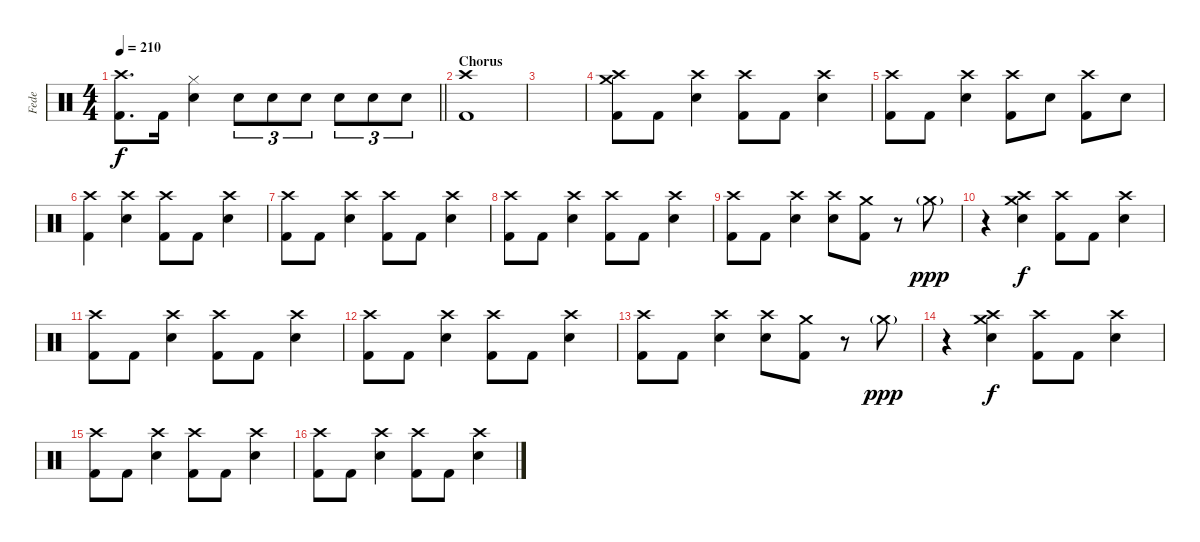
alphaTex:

\track ("Fede" "Fede") {instrument percussion}
\staff {score}
\articulation defaults
\ts (4 4)
\tempo 210
\clef neutral
\barLineRight lightlight
\ks c
("Crash high (hit)" "Kick (hit) 2").8{d dy f} "Kick (hit) 2".16 ("Hi-Hat (closed)" "Snare (hit) 2").4 "Snare (hit) 2".8{tu (3 2)} "Snare (hit) 2".8{tu (3 2)} "Snare (hit) 2".8{tu (3 2)} "Snare (hit) 2".8{tu (3 2)} "Snare (hit) 2".8{tu (3 2)} "Snare (hit) 2".8{tu (3 2)} |
\section ("" "Chorus")
("Crash high (hit)" "Kick (hit) 2").1 |
|
("Crash high (hit)" "Crash medium (hit)" "Kick (hit) 2").8 "Kick (hit) 2".8 ("Crash high (hit)" "Snare (hit) 2").4 ("Crash high (hit)" "Kick (hit) 2").8 "Kick (hit) 2".8 ("Crash high (hit)" "Snare (hit) 2").4 |
("Crash high (hit)" "Kick (hit) 2").8 "Kick (hit) 2".8 ("Crash high (hit)" "Snare (hit) 2").4 ("Crash high (hit)" "Kick (hit) 2").8 "Snare (hit) 2".8 ("Crash high (hit)" "Kick (hit) 2").8 "Snare (hit) 2".8 |
("Crash high (hit)" "Kick (hit) 2").4 ("Crash high (hit)" "Snare (hit) 2").4 ("Crash high (hit)" "Kick (hit) 2").8 "Kick (hit) 2".8 ("Crash high (hit)" "Snare (hit) 2").4 |
("Crash high (hit)" "Kick (hit) 2").8 "Kick (hit) 2".8 ("Crash high (hit)" "Snare (hit) 2").4 ("Crash high (hit)" "Kick (hit) 2").8 "Kick (hit) 2".8 ("Crash high (hit)" "Snare (hit) 2").4 |
("Crash high (hit)" "Kick (hit) 2").8 "Kick (hit) 2".8 ("Crash high (hit)" "Snare (hit) 2").4 ("Crash high (hit)" "Kick (hit) 2").8 "Kick (hit) 2".8 ("Crash high (hit)" "Snare (hit) 2").4 |
("Crash high (hit)" "Kick (hit) 2").8 "Kick (hit) 2".8 ("Crash high (hit)" "Snare (hit) 2").4 ("Crash high (hit)" "Snare (hit) 2").8 ("Crash medium (hit)" "Kick (hit) 2").8 r.8 "Crash medium (hit)"{g}.8{dy ppp} |
r.4 ("Crash high (hit)" "Crash medium (hit)" "Snare (hit) 2").4{dy f} ("Crash high (hit)" "Kick (hit) 2").8 "Kick (hit) 2".8 ("Crash high (hit)" "Snare (hit) 2").4 |
("Crash high (hit)" "Kick (hit) 2").8 "Kick (hit) 2".8 ("Crash high (hit)" "Snare (hit) 2").4 ("Crash high (hit)" "Kick (hit) 2").8 "Kick (hit) 2".8 ("Crash high (hit)" "Snare (hit) 2").4 |
("Crash high (hit)" "Kick (hit) 2").8 "Kick (hit) 2".8 ("Crash high (hit)" "Snare (hit) 2").4 ("Crash high (hit)" "Kick (hit) 2").8 "Kick (hit) 2".8 ("Crash high (hit)" "Snare (hit) 2").4 |
("Crash high (hit)" "Kick (hit) 2").8 "Kick (hit) 2".8 ("Crash high (hit)" "Snare (hit) 2").4 ("Crash high (hit)" "Snare (hit) 2").8 ("Crash medium (hit)" "Kick (hit) 2").8 r.8 "Crash medium (hit)"{g}.8{dy ppp} |
r.4 ("Crash high (hit)" "Crash medium (hit)" "Snare (hit) 2").4{dy f} ("Crash high (hit)" "Kick (hit) 2").8 "Kick (hit) 2".8 ("Crash high (hit)" "Snare (hit) 2").4 |
("Crash high (hit)" "Kick (hit) 2").8 "Kick (hit) 2".8 ("Crash high (hit)" "Snare (hit) 2").4 ("Crash high (hit)" "Kick (hit) 2").8 "Kick (hit) 2".8 ("Crash high (hit)" "Snare (hit) 2").4 |
("Crash high (hit)" "Kick (hit) 2").8 "Kick (hit) 2".8 ("Crash high (hit)" "Snare (hit) 2").4 ("Crash high (hit)" "Kick (hit) 2").8 "Kick (hit) 2".8 ("Crash high (hit)" "Snare (hit) 2").4
